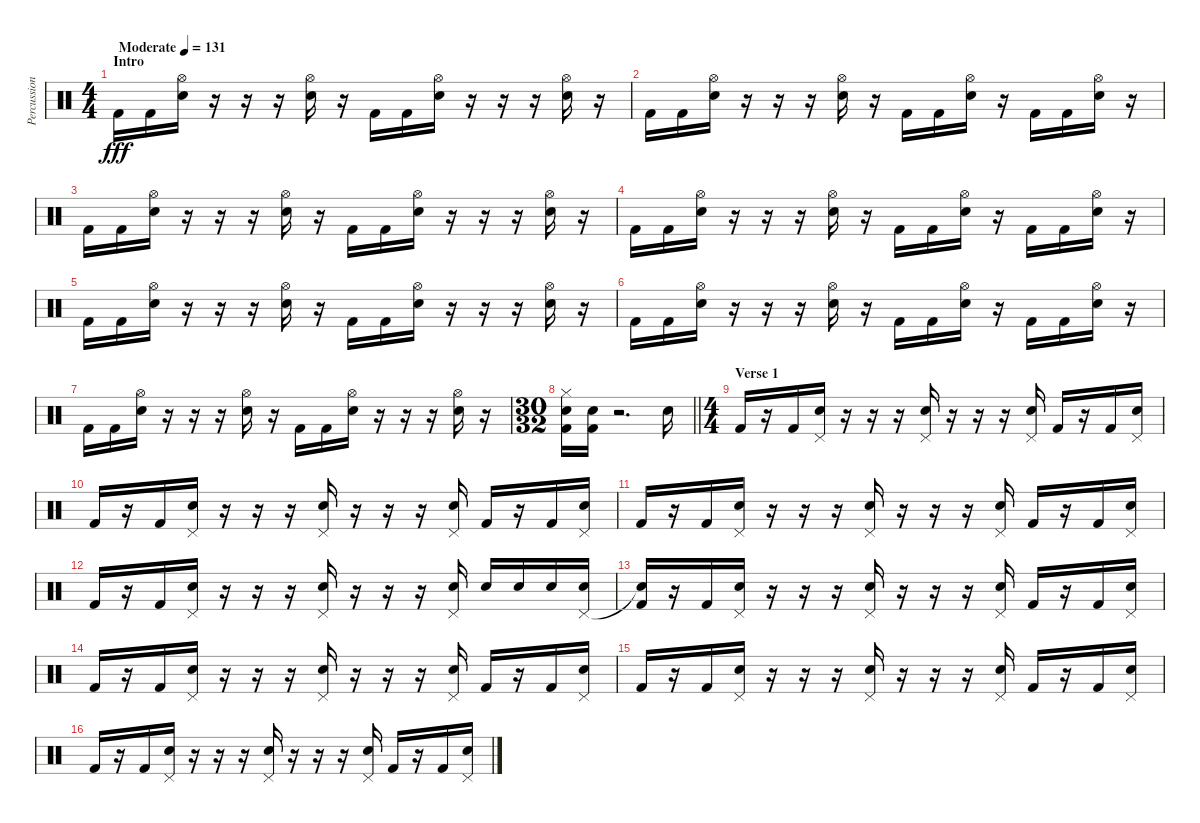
\track ("Percussion" "Percussion") {instrument percussion}
\staff {score}
\articulation defaults
\ts (4 4)
\section ("" "Intro")
\tempo (131 "Moderate")
\clef neutral
\ks c "Kick (hit) 2".16{dy fff} "Kick (hit) 2".16
("Hi-Hat (open)" "Snare (hit) 2").16 r.16 r.16 r.16 ("Hi-Hat (open)" "Snare (hit) 2").16 r.16 "Kick (hit) 2".16 "Kick (hit) 2".16 ("Hi-Hat (open)" "Snare (hit) 2").16 r.16 r.16 r.16 ("Hi-Hat (open)" "Snare (hit) 2").16 r.16 |
"Kick (hit) 2".16 "Kick (hit) 2".16 ("Hi-Hat (open)" "Snare (hit) 2").16 r.16 r.16 r.16 ("Hi-Hat (open)" "Snare (hit) 2").16 r.16 "Kick (hit) 2".16 "Kick (hit) 2".16 ("Hi-Hat (open)" "Snare (hit) 2").16 r.16 "Kick (hit) 2".16 "Kick (hit) 2".16 ("Hi-Hat (open)" "Snare (hit) 2").16 r.16 |
"Kick (hit) 2".16 "Kick (hit) 2".16 ("Hi-Hat (open)" "Snare (hit) 2").16 r.16 r.16 r.16 ("Hi-Hat (open)" "Snare (hit) 2").16 r.16 "Kick (hit) 2".16 "Kick (hit) 2".16 ("Hi-Hat (open)" "Snare (hit) 2").16 r.16 r.16 r.16 ("Hi-Hat (open)" "Snare (hit) 2").16 r.16 |
"Kick (hit) 2".16 "Kick (hit) 2".16 ("Hi-Hat (open)" "Snare (hit) 2").16 r.16 r.16 r.16 ("Hi-Hat (open)" "Snare (hit) 2").16 r.16 "Kick (hit) 2".16 "Kick (hit) 2".16 ("Hi-Hat (open)" "Snare (hit) 2").16 r.16 "Kick (hit) 2".16 "Kick (hit) 2".16 ("Hi-Hat (open)" "Snare (hit) 2").16 r.16 |
"Kick (hit) 2".16 "Kick (hit) 2".16 ("Hi-Hat (open)" "Snare (hit) 2").16 r.16 r.16 r.16 ("Hi-Hat (open)" "Snare (hit) 2").16 r.16 "Kick (hit) 2".16 "Kick (hit) 2".16 ("Hi-Hat (open)" "Snare (hit) 2").16 r.16 r.16 r.16 ("Hi-Hat (open)" "Snare (hit) 2").16 r.16 |
"Kick (hit) 2".16 "Kick (hit) 2".16 ("Hi-Hat (open)" "Snare (hit) 2").16 r.16 r.16 r.16 ("Hi-Hat (open)" "Snare (hit) 2").16 r.16 "Kick (hit) 2".16 "Kick (hit) 2".16 ("Hi-Hat (open)" "Snare (hit) 2").16 r.16 "Kick (hit) 2".16 "Kick (hit) 2".16 ("Hi-Hat (open)" "Snare (hit) 2").16 r.16 |
"Kick (hit) 2".16 "Kick (hit) 2".16 ("Hi-Hat (open)" "Snare (hit) 2").16 r.16 r.16 r.16 ("Hi-Hat (open)" "Snare (hit) 2").16 r.16 "Kick (hit) 2".16 "Kick (hit) 2".16 ("Hi-Hat (open)" "Snare (hit) 2").16 r.16 r.16 r.16 ("Hi-Hat (open)" "Snare (hit) 2").16 r.16 |
\ts (30 32)
\barLineRight lightlight
("Hi-Hat (closed)" "Snare (hit) 2" "Kick (hit) 2").16 ("Snare (hit) 2" "Kick (hit) 2").16 r.2{d} "Snare (hit) 2".16 |
\ts (4 4)
\section ("" "Verse 1")
"Kick (hit) 2".16 r.16 "Kick (hit) 2".16 ("Pedal Hi-Hat (hit)" "Snare (hit) 2").16 r.16 r.16 r.16 ("Pedal Hi-Hat (hit)" "Snare (hit) 2").16 r.16 r.16 r.16 ("Pedal Hi-Hat (hit)" "Snare (hit) 2").16 "Kick (hit) 2".16 r.16 "Kick (hit) 2".16 ("Pedal Hi-Hat (hit)" "Snare (hit) 2").16 |
"Kick (hit) 2".16 r.16 "Kick (hit) 2".16 ("Pedal Hi-Hat (hit)" "Snare (hit) 2").16 r.16 r.16 r.16 ("Pedal Hi-Hat (hit)" "Snare (hit) 2").16 r.16 r.16 r.16 ("Pedal Hi-Hat (hit)" "Snare (hit) 2").16 "Kick (hit) 2".16 r.16 "Kick (hit) 2".16 ("Pedal Hi-Hat (hit)" "Snare (hit) 2").16 |
"Kick (hit) 2".16 r.16 "Kick (hit) 2".16 ("Pedal Hi-Hat (hit)" "Snare (hit) 2").16 r.16 r.16 r.16 ("Pedal Hi-Hat (hit)" "Snare (hit) 2").16 r.16 r.16 r.16 ("Pedal Hi-Hat (hit)" "Snare (hit) 2").16 "Kick (hit) 2".16 r.16 "Kick (hit) 2".16 ("Pedal Hi-Hat (hit)" "Snare (hit) 2").16 |
"Kick (hit) 2".16 r.16 "Kick (hit) 2".16 ("Pedal Hi-Hat (hit)" "Snare (hit) 2").16 r.16 r.16 r.16 ("Pedal Hi-Hat (hit)" "Snare (hit) 2").16 r.16 r.16 r.16 ("Pedal Hi-Hat (hit)" "Snare (hit) 2").16 "Snare (hit) 2".16 "Snare (hit) 2".16 "Snare (hit) 2".16 ("Pedal Hi-Hat (hit)" "Snare (hit) 2").16 |
("Snare (hit)"{t} "Kick (hit) 2").16 r.16 "Kick (hit) 2".16 ("Pedal Hi-Hat (hit)" "Snare (hit) 2").16 r.16 r.16 r.16 ("Pedal Hi-Hat (hit)" "Snare (hit) 2").16 r.16 r.16 r.16 ("Pedal Hi-Hat (hit)" "Snare (hit) 2").16 "Kick (hit) 2".16 r.16 "Kick (hit) 2".16 ("Pedal Hi-Hat (hit)" "Snare (hit) 2").16 |
"Kick (hit) 2".16 r.16 "Kick (hit) 2".16 ("Pedal Hi-Hat (hit)" "Snare (hit) 2").16 r.16 r.16 r.16 ("Pedal Hi-Hat (hit)" "Snare (hit) 2").16 r.16 r.16 r.16 ("Pedal Hi-Hat (hit)" "Snare (hit) 2").16 "Kick (hit) 2".16 r.16 "Kick (hit) 2".16 ("Pedal Hi-Hat (hit)" "Snare (hit) 2").16 |
"Kick (hit) 2".16 r.16 "Kick (hit) 2".16 ("Pedal Hi-Hat (hit)" "Snare (hit) 2").16 r.16 r.16 r.16 ("Pedal Hi-Hat (hit)" "Snare (hit) 2").16 r.16 r.16 r.16 ("Pedal Hi-Hat (hit)" "Snare (hit) 2").16 "Kick (hit) 2".16 r.16 "Kick (hit) 2".16 ("Pedal Hi-Hat (hit)" "Snare (hit) 2").16 |
"Kick (hit) 2".16 r.16 "Kick (hit) 2".16 ("Pedal Hi-Hat (hit)" "Snare (hit) 2").16 r.16 r.16 r.16 ("Pedal Hi-Hat (hit)" "Snare (hit) 2").16 r.16 r.16 r.16 ("Pedal Hi-Hat (hit)" "Snare (hit) 2").16 "Kick (hit) 2".16 r.16 "Kick (hit) 2".16 ("Pedal Hi-Hat (hit)" "Snare (hit) 2").16
